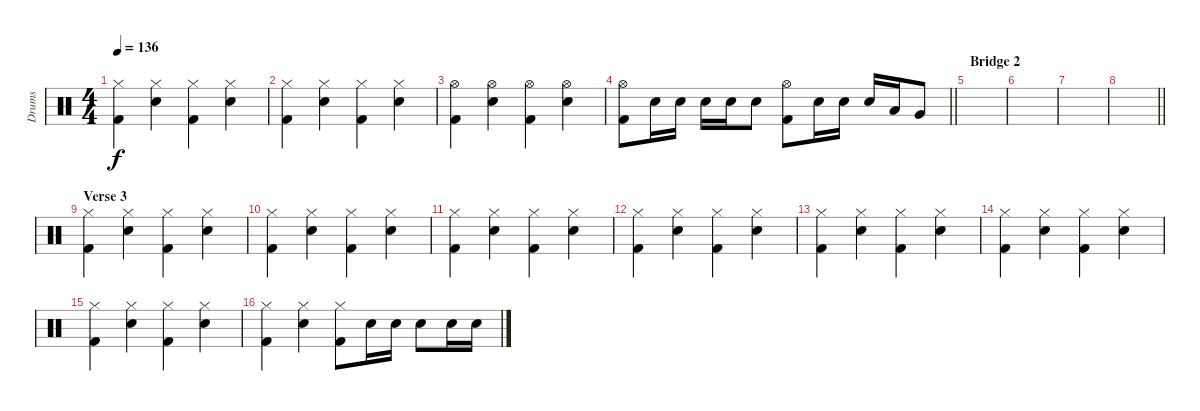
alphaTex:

\track ("Drums" "Drums") {instrument percussion}
\staff {score}
\articulation defaults
\ts (4 4)
\tempo 136
\clef neutral
\ks c
("Hi-Hat (closed)" "Kick (hit) 2").4{dy f} ("Hi-Hat (closed)" "Snare (hit) 2").4 ("Hi-Hat (closed)" "Kick (hit) 2").4 ("Hi-Hat (closed)" "Snare (hit) 2").4 |
("Hi-Hat (closed)" "Kick (hit) 2").4 ("Hi-Hat (closed)" "Snare (hit) 2").4 ("Hi-Hat (closed)" "Kick (hit) 2").4 ("Hi-Hat (closed)" "Snare (hit) 2").4 |
("Hi-Hat (open)" "Kick (hit) 2").4 ("Hi-Hat (open)" "Snare (hit) 2").4 ("Hi-Hat (open)" "Kick (hit) 2").4 ("Hi-Hat (open)" "Snare (hit) 2").4 |
\barLineRight lightlight
("Hi-Hat (open)" "Kick (hit) 2").8 "Snare (hit) 2".16 "Snare (hit) 2".16 "Snare (hit) 2".16 "Snare (hit) 2".16 "Snare (hit) 2".8 ("Hi-Hat (open)" "Kick (hit) 2").8 "Snare (hit) 2".16 "Snare (hit) 2".16 "Snare (hit) 2".16 "Low Tom (hit)".16 "Very Low Tom (hit)".8 |
\section ("" "Bridge 2")
|
|
|
\barLineRight lightlight
|
\section ("" "Verse 3")
("Hi-Hat (closed)" "Kick (hit) 2").4 ("Hi-Hat (closed)" "Snare (hit) 2").4 ("Hi-Hat (closed)" "Kick (hit) 2").4 ("Hi-Hat (closed)" "Snare (hit) 2").4 |
("Hi-Hat (closed)" "Kick (hit) 2").4 ("Hi-Hat (closed)" "Snare (hit) 2").4 ("Hi-Hat (closed)" "Kick (hit) 2").4 ("Hi-Hat (closed)" "Snare (hit) 2").4 |
("Hi-Hat (closed)" "Kick (hit) 2").4 ("Hi-Hat (closed)" "Snare (hit) 2").4 ("Hi-Hat (closed)" "Kick (hit) 2").4 ("Hi-Hat (closed)" "Snare (hit) 2").4 |
("Hi-Hat (closed)" "Kick (hit) 2").4 ("Hi-Hat (closed)" "Snare (hit) 2").4 ("Hi-Hat (closed)" "Kick (hit) 2").4 ("Hi-Hat (closed)" "Snare (hit) 2").4 |
("Hi-Hat (closed)" "Kick (hit) 2").4 ("Hi-Hat (closed)" "Snare (hit) 2").4 ("Hi-Hat (closed)" "Kick (hit) 2").4 ("Hi-Hat (closed)" "Snare (hit) 2").4 |
("Hi-Hat (closed)" "Kick (hit) 2").4 ("Hi-Hat (closed)" "Snare (hit) 2").4 ("Hi-Hat (closed)" "Kick (hit) 2").4 ("Hi-Hat (closed)" "Snare (hit) 2").4 |
("Hi-Hat (closed)" "Kick (hit) 2").4 ("Hi-Hat (closed)" "Snare (hit) 2").4 ("Hi-Hat (closed)" "Kick (hit) 2").4 ("Hi-Hat (closed)" "Snare (hit) 2").4 |
("Hi-Hat (closed)" "Kick (hit) 2").4 ("Hi-Hat (closed)" "Snare (hit) 2").4 ("Hi-Hat (closed)" "Kick (hit) 2").8 "Snare (hit) 2".16 "Snare (hit) 2".16 "Snare (hit) 2".8 "Snare (hit) 2".16 "Snare (hit) 2".16
